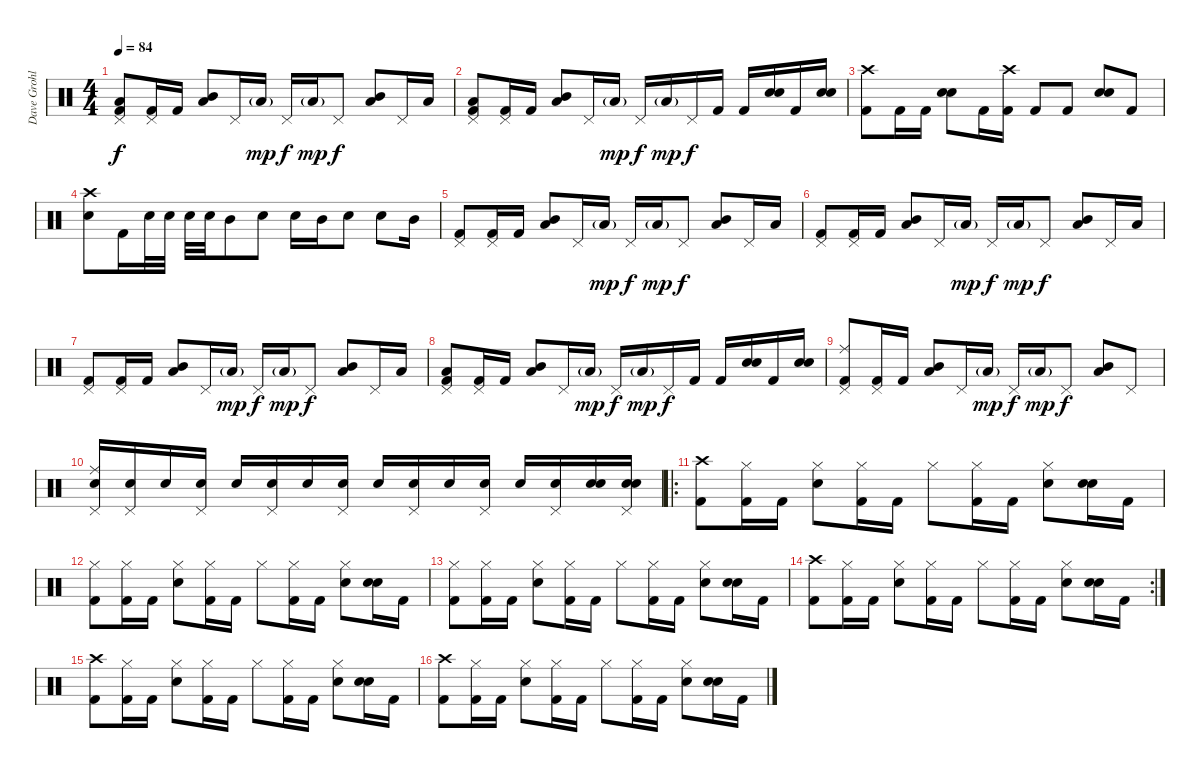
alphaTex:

\track ("Dave Grohl (Drums)" "Dave Grohl") {instrument percussion}
\staff {score}
\articulation defaults
\ts (4 4)
\tempo 84
\clef neutral
\ks c
("Low Floor Tom (hit)" "Pedal Hi-Hat (hit)"{x} "Kick (hit) 2").8{dy f} ("Pedal Hi-Hat (hit)"{x} "Kick (hit) 2").16 "Kick (hit) 2".16 ("Mid Tom (hit)" "Low Floor Tom (hit)").8 "Pedal Hi-Hat (hit)"{x}.16 "Low Floor Tom (hit)"{g}.16{dy mp} "Pedal Hi-Hat (hit)"{x}.16{dy f} "Low Floor Tom (hit)"{g}.16{dy mp} "Pedal Hi-Hat (hit)"{x}.8{dy f} ("Mid Tom (hit)" "Low Floor Tom (hit)").8 "Pedal Hi-Hat (hit)"{x}.16 "Low Floor Tom (hit)".16 |
("Low Floor Tom (hit)" "Pedal Hi-Hat (hit)"{x} "Kick (hit) 2").8 ("Pedal Hi-Hat (hit)"{x} "Kick (hit) 2").16 "Kick (hit) 2".16 ("Mid Tom (hit)" "Low Floor Tom (hit)").8 "Pedal Hi-Hat (hit)"{x}.16 "Low Floor Tom (hit)"{g}.16{dy mp} "Pedal Hi-Hat (hit)"{x}.16{dy f} "Low Floor Tom (hit)"{g}.16{dy mp} "Pedal Hi-Hat (hit)"{x}.16{dy f} "Kick (hit) 2".16 "Kick (hit) 2".16 ("Snare (hit) 2" "Snare (hit) 2").16 "Kick (hit) 2".16 ("Snare (hit) 2" "Snare (hit) 2").16 |
("Crash high (hit)"{x} "Kick (hit) 2").8 "Kick (hit) 2".16 "Kick (hit) 2".16 ("Electric Snare (hit)" "Electric Snare (hit)").8 "Kick (hit) 2".16 ("Crash high (hit)"{x} "Kick (hit) 2").16 "Kick (hit) 2".8 "Kick (hit) 2".8 ("Electric Snare (hit)" "Electric Snare (hit)").8 "Kick (hit) 2".8 |
("Crash high (hit)"{x} "Snare (hit) 2").8 "Kick (hit) 2".16 "Snare (hit) 2".32 "Snare (hit) 2".32 "Snare (hit) 2".32 "Snare (hit) 2".32 "Mid Tom (hit)".8 "Snare (hit) 2".8 "Snare (hit) 2".16 "Mid Tom (hit)".16 "Snare (hit) 2".8 "Snare (hit) 2".8 "Mid Tom (hit)".16 |
("Pedal Hi-Hat (hit)"{x} "Kick (hit) 2").8 ("Pedal Hi-Hat (hit)"{x} "Kick (hit) 2").16 "Kick (hit) 2".16 ("Mid Tom (hit)" "Low Floor Tom (hit)").8 "Pedal Hi-Hat (hit)"{x}.16 "Low Floor Tom (hit)"{g}.16{dy mp} "Pedal Hi-Hat (hit)"{x}.16{dy f} "Low Floor Tom (hit)"{g}.16{dy mp} "Pedal Hi-Hat (hit)"{x}.8{dy f} ("Mid Tom (hit)" "Low Floor Tom (hit)").8 "Pedal Hi-Hat (hit)"{x}.16 "Low Floor Tom (hit)".16 |
("Pedal Hi-Hat (hit)"{x} "Kick (hit) 2").8 ("Pedal Hi-Hat (hit)"{x} "Kick (hit) 2").16 "Kick (hit) 2".16 ("Mid Tom (hit)" "Low Floor Tom (hit)").8 "Pedal Hi-Hat (hit)"{x}.16 "Low Floor Tom (hit)"{g}.16{dy mp} "Pedal Hi-Hat (hit)"{x}.16{dy f} "Low Floor Tom (hit)"{g}.16{dy mp} "Pedal Hi-Hat (hit)"{x}.8{dy f} ("Mid Tom (hit)" "Low Floor Tom (hit)").8 "Pedal Hi-Hat (hit)"{x}.16 "Low Floor Tom (hit)".16 |
("Pedal Hi-Hat (hit)"{x} "Kick (hit) 2").8 ("Pedal Hi-Hat (hit)"{x} "Kick (hit) 2").16 "Kick (hit) 2".16 ("Mid Tom (hit)" "Low Floor Tom (hit)").8 "Pedal Hi-Hat (hit)"{x}.16 "Low Floor Tom (hit)"{g}.16{dy mp} "Pedal Hi-Hat (hit)"{x}.16{dy f} "Low Floor Tom (hit)"{g}.16{dy mp} "Pedal Hi-Hat (hit)"{x}.8{dy f} ("Mid Tom (hit)" "Low Floor Tom (hit)").8 "Pedal Hi-Hat (hit)"{x}.16 "Low Floor Tom (hit)".16 |
("Low Floor Tom (hit)" "Pedal Hi-Hat (hit)"{x} "Kick (hit) 2").8 ("Pedal Hi-Hat (hit)"{x} "Kick (hit) 2").16 "Kick (hit) 2".16 ("Mid Tom (hit)" "Low Floor Tom (hit)").8 "Pedal Hi-Hat (hit)"{x}.16 "Low Floor Tom (hit)"{g}.16{dy mp} "Pedal Hi-Hat (hit)"{x}.16{dy f} "Low Floor Tom (hit)"{g}.16{dy mp} "Pedal Hi-Hat (hit)"{x}.16{dy f} "Kick (hit) 2".16 "Kick (hit) 2".16 ("Snare (hit) 2" "Snare (hit) 2").16 "Kick (hit) 2".16 ("Snare (hit) 2" "Snare (hit) 2").16 |
("Ride (middle)"{x} "Pedal Hi-Hat (hit)"{x} "Kick (hit) 2").8 ("Pedal Hi-Hat (hit)"{x} "Kick (hit) 2").16 "Kick (hit) 2".16 ("Mid Tom (hit)" "Low Floor Tom (hit)").8 "Pedal Hi-Hat (hit)"{x}.16 "Low Floor Tom (hit)"{g}.16{dy mp} "Pedal Hi-Hat (hit)"{x}.16{dy f} "Low Floor Tom (hit)"{g}.16{dy mp} "Pedal Hi-Hat (hit)"{x}.8{dy f} ("Mid Tom (hit)" "Low Floor Tom (hit)").8 "Pedal Hi-Hat (hit)"{x}.8 |
("Ride (middle)"{x} "Electric Snare (hit)" "Pedal Hi-Hat (hit)").16 ("Electric Snare (hit)" "Pedal Hi-Hat (hit)").16 "Electric Snare (hit)".16 ("Electric Snare (hit)" "Pedal Hi-Hat (hit)").16 "Electric Snare (hit)".16 ("Electric Snare (hit)" "Pedal Hi-Hat (hit)").16 "Electric Snare (hit)".16 ("Electric Snare (hit)" "Pedal Hi-Hat (hit)").16 "Electric Snare (hit)".16{volume 9} ("Electric Snare (hit)" "Pedal Hi-Hat (hit)").16 "Electric Snare (hit)".16{volume 9} ("Electric Snare (hit)" "Pedal Hi-Hat (hit)").16 "Electric Snare (hit)".16{volume 10} ("Electric Snare (hit)" "Pedal Hi-Hat (hit)").16 ("Electric Snare (hit)" "Electric Snare (hit)").16{volume 10} ("Electric Snare (hit)" "Electric Snare (hit)" "Pedal Hi-Hat (hit)").16{volume 16} |
\ro
("Crash high (hit)"{x} "Kick (hit) 2").8 ("Hi-Hat (closed)" "Kick (hit) 2").16 "Kick (hit) 2".16 ("Hi-Hat (closed)" "Snare (hit) 2").8 ("Hi-Hat (closed)" "Kick (hit) 2").16 "Kick (hit) 2".16 "Hi-Hat (closed)".8 ("Hi-Hat (closed)" "Kick (hit) 2").16 "Kick (hit) 2".16 ("Hi-Hat (closed)" "Snare (hit) 2").8 ("Snare (hit) 2" "Snare (hit) 2").16 "Kick (hit) 2".16 |
("Hi-Hat (closed)" "Kick (hit) 2").8 ("Hi-Hat (closed)" "Kick (hit) 2").16 "Kick (hit) 2".16 ("Hi-Hat (closed)" "Snare (hit) 2").8 ("Hi-Hat (closed)" "Kick (hit) 2").16 "Kick (hit) 2".16 "Hi-Hat (closed)".8 ("Hi-Hat (closed)" "Kick (hit) 2").16 "Kick (hit) 2".16 ("Hi-Hat (closed)" "Snare (hit) 2").8 ("Snare (hit) 2" "Snare (hit) 2").16 "Kick (hit) 2".16 |
("Hi-Hat (closed)" "Kick (hit) 2").8 ("Hi-Hat (closed)" "Kick (hit) 2").16 "Kick (hit) 2".16 ("Hi-Hat (closed)" "Snare (hit) 2").8 ("Hi-Hat (closed)" "Kick (hit) 2").16 "Kick (hit) 2".16 "Hi-Hat (closed)".8 ("Hi-Hat (closed)" "Kick (hit) 2").16 "Kick (hit) 2".16 ("Hi-Hat (closed)" "Snare (hit) 2").8 ("Snare (hit) 2" "Snare (hit) 2").16 "Kick (hit) 2".16 |
\rc 2
("Crash high (hit)"{x} "Kick (hit) 2").8 ("Hi-Hat (closed)" "Kick (hit) 2").16 "Kick (hit) 2".16 ("Hi-Hat (closed)" "Snare (hit) 2").8 ("Hi-Hat (closed)" "Kick (hit) 2").16 "Kick (hit) 2".16 "Hi-Hat (closed)".8 ("Hi-Hat (closed)" "Kick (hit) 2").16 "Kick (hit) 2".16 ("Hi-Hat (closed)" "Snare (hit) 2").8 ("Snare (hit) 2" "Snare (hit) 2").16 "Kick (hit) 2".16 |
("Crash high (hit)"{x} "Kick (hit) 2").8 ("Hi-Hat (closed)" "Kick (hit) 2").16 "Kick (hit) 2".16 ("Hi-Hat (closed)" "Snare (hit) 2").8 ("Hi-Hat (closed)" "Kick (hit) 2").16 "Kick (hit) 2".16 "Hi-Hat (closed)".8 ("Hi-Hat (closed)" "Kick (hit) 2").16 "Kick (hit) 2".16 ("Hi-Hat (closed)" "Snare (hit) 2").8 ("Snare (hit) 2" "Snare (hit) 2").16 "Kick (hit) 2".16 |
("Crash high (hit)"{x} "Kick (hit) 2").8 ("Hi-Hat (closed)" "Kick (hit) 2").16 "Kick (hit) 2".16 ("Hi-Hat (closed)" "Snare (hit) 2").8 ("Hi-Hat (closed)" "Kick (hit) 2").16 "Kick (hit) 2".16 "Hi-Hat (closed)".8 ("Hi-Hat (closed)" "Kick (hit) 2").16 "Kick (hit) 2".16 ("Hi-Hat (closed)" "Snare (hit) 2").8 ("Snare (hit) 2" "Snare (hit) 2").16 "Kick (hit) 2".16
